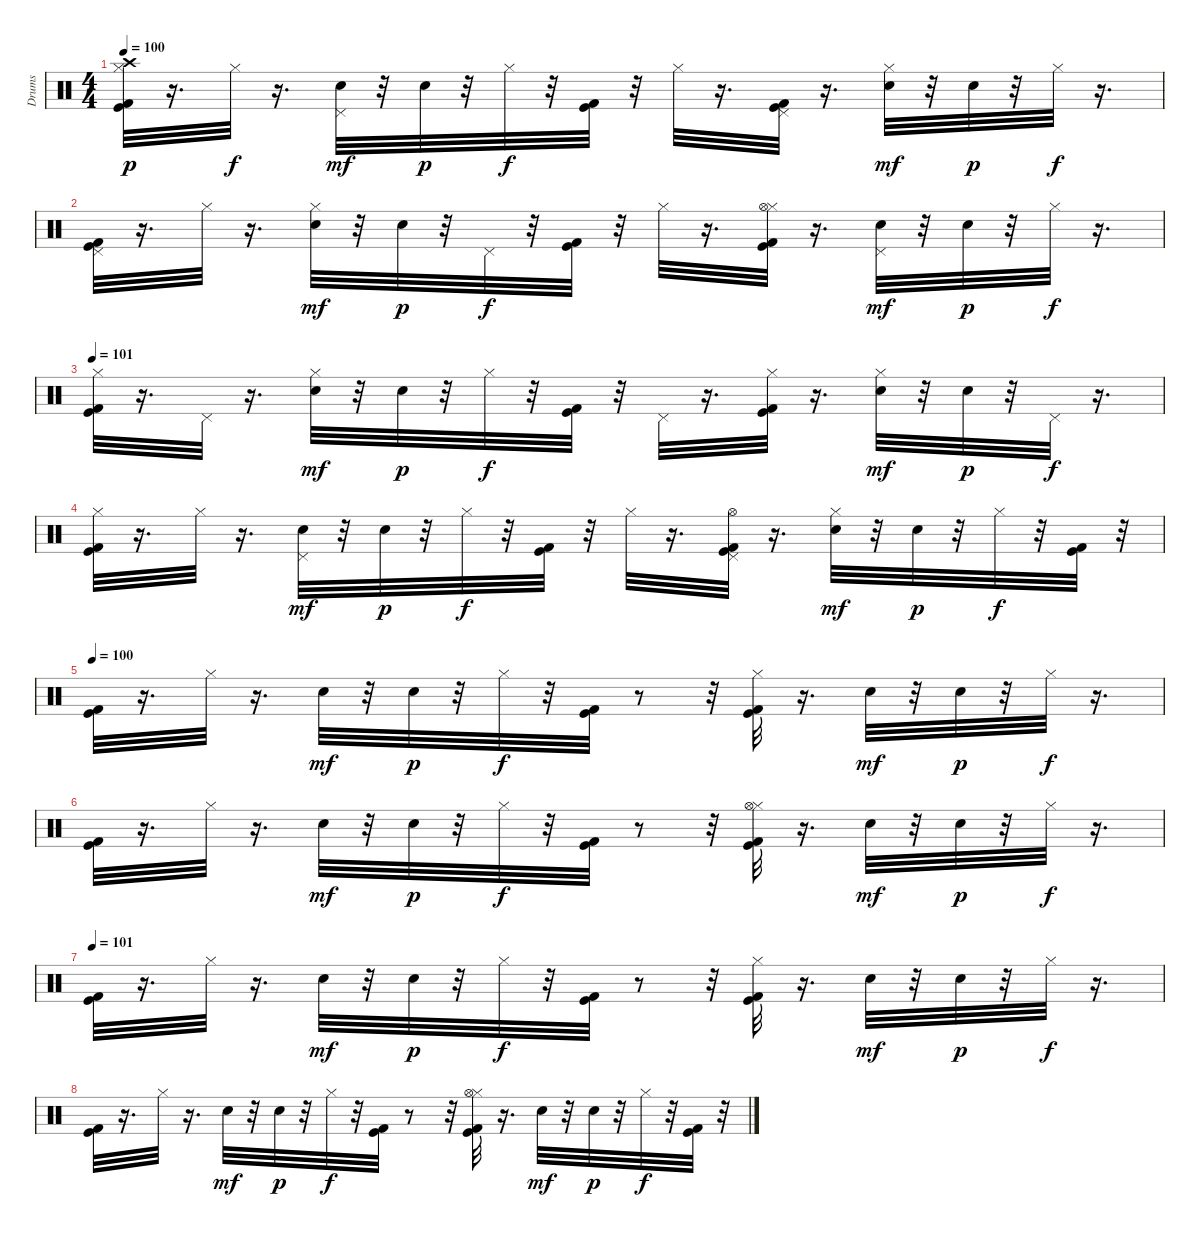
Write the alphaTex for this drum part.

\track ("Drums" "Drums") {instrument percussion}
\staff {score}
\articulation defaults
\ts (4 4)
\tempo 100
\clef neutral
\ks c
("Kick (hit)" "Kick (hit) 2" "Hi-Hat (closed)" "Crash high (hit)").32{dy p} r.16{d} "Hi-Hat (closed)".32{dy f} r.16{d} ("Hand Clap (hit)" "Pedal Hi-Hat (hit)").32{dy mf} r.32 "Hand Clap (hit)".32{dy p} r.32 "Hi-Hat (closed)".32{dy f} r.32 ("Kick (hit)" "Kick (hit) 2").32 r.32 "Hi-Hat (closed)".32 r.16{d} ("Kick (hit)" "Kick (hit) 2" "Pedal Hi-Hat (hit)").32 r.16{d} ("Hand Clap (hit)" "Hi-Hat (closed)").32{dy mf} r.32 "Hand Clap (hit)".32{dy p} r.32 "Hi-Hat (closed)".32{dy f} r.16{d} |
("Kick (hit)" "Kick (hit) 2" "Pedal Hi-Hat (hit)").32 r.16{d} "Hi-Hat (closed)".32 r.16{d} ("Hand Clap (hit)" "Hi-Hat (closed)").32{dy mf} r.32 "Hand Clap (hit)".32{dy p} r.32 "Pedal Hi-Hat (hit)".32{dy f} r.32 ("Kick (hit)" "Kick (hit) 2").32 r.32 "Hi-Hat (closed)".32 r.16{d} ("Kick (hit)" "Kick (hit) 2" "Hi-Hat (closed)" "Hi-Hat (open)").32 r.16{d} ("Hand Clap (hit)" "Pedal Hi-Hat (hit)").32{dy mf} r.32 "Hand Clap (hit)".32{dy p} r.32 "Hi-Hat (closed)".32{dy f} r.16{d} |
\tempo 101
("Kick (hit)" "Kick (hit) 2" "Hi-Hat (closed)").32 r.16{d} "Pedal Hi-Hat (hit)".32 r.16{d} ("Hand Clap (hit)" "Hi-Hat (closed)").32{dy mf} r.32 "Hand Clap (hit)".32{dy p} r.32 "Hi-Hat (closed)".32{dy f} r.32 ("Kick (hit)" "Kick (hit) 2").32 r.32 "Pedal Hi-Hat (hit)".32 r.16{d} ("Kick (hit)" "Kick (hit) 2" "Hi-Hat (closed)").32 r.16{d} ("Hand Clap (hit)" "Hi-Hat (closed)").32{dy mf} r.32 "Hand Clap (hit)".32{dy p} r.32 "Pedal Hi-Hat (hit)".32{dy f} r.16{d} |
("Kick (hit)" "Kick (hit) 2" "Hi-Hat (closed)").32 r.16{d} "Hi-Hat (closed)".32 r.16{d} ("Hand Clap (hit)" "Pedal Hi-Hat (hit)").32{dy mf} r.32 "Hand Clap (hit)".32{dy p} r.32 "Hi-Hat (closed)".32{dy f} r.32 ("Kick (hit)" "Kick (hit) 2").32 r.32 "Hi-Hat (closed)".32 r.16{d} ("Kick (hit)" "Kick (hit) 2" "Pedal Hi-Hat (hit)" "Hi-Hat (open)").32 r.16{d} ("Hand Clap (hit)" "Hi-Hat (closed)").32{dy mf} r.32 "Hand Clap (hit)".32{dy p} r.32 "Hi-Hat (closed)".32{dy f} r.32 ("Kick (hit)" "Kick (hit) 2").32 r.32 |
\tempo 100
("Kick (hit)" "Kick (hit) 2").32 r.16{d} "Hi-Hat (closed)".32 r.16{d} "Hand Clap (hit)".32{dy mf} r.32 "Hand Clap (hit)".32{dy p} r.32 "Hi-Hat (closed)".32{dy f} r.32 ("Kick (hit)" "Kick (hit) 2").32 r.8 r.32 ("Kick (hit)" "Kick (hit) 2" "Hi-Hat (closed)").32 r.16{d} "Hand Clap (hit)".32{dy mf} r.32 "Hand Clap (hit)".32{dy p} r.32 "Hi-Hat (closed)".32{dy f} r.16{d} |
("Kick (hit)" "Kick (hit) 2").32 r.16{d} "Hi-Hat (closed)".32 r.16{d} "Hand Clap (hit)".32{dy mf} r.32 "Hand Clap (hit)".32{dy p} r.32 "Hi-Hat (closed)".32{dy f} r.32 ("Kick (hit)" "Kick (hit) 2").32 r.8 r.32 ("Kick (hit)" "Kick (hit) 2" "Hi-Hat (closed)" "Hi-Hat (open)").32 r.16{d} "Hand Clap (hit)".32{dy mf} r.32 "Hand Clap (hit)".32{dy p} r.32 "Hi-Hat (closed)".32{dy f} r.16{d} |
\tempo 101
("Kick (hit)" "Kick (hit) 2").32 r.16{d} "Hi-Hat (closed)".32 r.16{d} "Hand Clap (hit)".32{dy mf} r.32 "Hand Clap (hit)".32{dy p} r.32 "Hi-Hat (closed)".32{dy f} r.32 ("Kick (hit)" "Kick (hit) 2").32 r.8 r.32 ("Kick (hit)" "Kick (hit) 2" "Hi-Hat (closed)").32 r.16{d} "Hand Clap (hit)".32{dy mf} r.32 "Hand Clap (hit)".32{dy p} r.32 "Hi-Hat (closed)".32{dy f} r.16{d} |
("Kick (hit)" "Kick (hit) 2").32 r.16{d} "Hi-Hat (closed)".32 r.16{d} "Hand Clap (hit)".32{dy mf} r.32 "Hand Clap (hit)".32{dy p} r.32 "Hi-Hat (closed)".32{dy f} r.32 ("Kick (hit)" "Kick (hit) 2").32 r.8 r.32 ("Kick (hit)" "Kick (hit) 2" "Hi-Hat (closed)" "Hi-Hat (open)").32 r.16{d} "Hand Clap (hit)".32{dy mf} r.32 "Hand Clap (hit)".32{dy p} r.32 "Hi-Hat (closed)".32{dy f} r.32 ("Kick (hit)" "Kick (hit) 2").32 r.32
